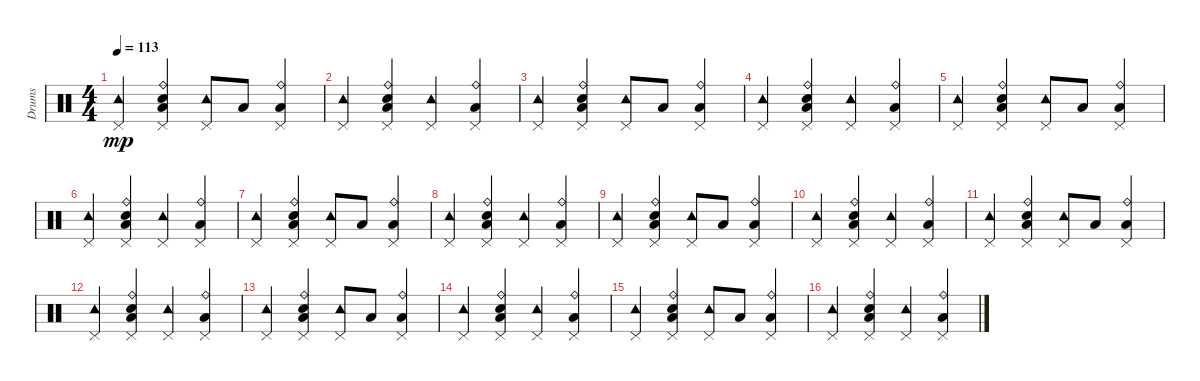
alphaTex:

\track ("Drums" "Drums") {instrument percussion}
\staff {score}
\articulation defaults
\ts (4 4)
\tempo 113
\clef neutral
\ks c
("Pedal Hi-Hat (hit)" "Tambourine (hit)").4{dy mp} ("Pedal Hi-Hat (hit)" "Snare (hit) 2" "Low Floor Tom (hit)" "Ride (bell)").4 ("Pedal Hi-Hat (hit)" "Tambourine (hit)").8 "Low Floor Tom (hit)".8 ("Pedal Hi-Hat (hit)" "Low Floor Tom (hit)" "Ride (bell)").4 |
("Pedal Hi-Hat (hit)" "Tambourine (hit)").4 ("Pedal Hi-Hat (hit)" "Snare (hit) 2" "Low Floor Tom (hit)" "Ride (bell)").4 ("Pedal Hi-Hat (hit)" "Tambourine (hit)").4 ("Pedal Hi-Hat (hit)" "Low Floor Tom (hit)" "Ride (bell)").4 |
("Pedal Hi-Hat (hit)" "Tambourine (hit)").4 ("Pedal Hi-Hat (hit)" "Snare (hit) 2" "Low Floor Tom (hit)" "Ride (bell)").4 ("Pedal Hi-Hat (hit)" "Tambourine (hit)").8 "Low Floor Tom (hit)".8 ("Pedal Hi-Hat (hit)" "Low Floor Tom (hit)" "Ride (bell)").4 |
("Pedal Hi-Hat (hit)" "Tambourine (hit)").4 ("Pedal Hi-Hat (hit)" "Snare (hit) 2" "Low Floor Tom (hit)" "Ride (bell)").4 ("Pedal Hi-Hat (hit)" "Tambourine (hit)").4 ("Pedal Hi-Hat (hit)" "Low Floor Tom (hit)" "Ride (bell)").4 |
("Pedal Hi-Hat (hit)" "Tambourine (hit)").4 ("Pedal Hi-Hat (hit)" "Snare (hit) 2" "Low Floor Tom (hit)" "Ride (bell)").4 ("Pedal Hi-Hat (hit)" "Tambourine (hit)").8 "Low Floor Tom (hit)".8 ("Pedal Hi-Hat (hit)" "Low Floor Tom (hit)" "Ride (bell)").4 |
("Pedal Hi-Hat (hit)" "Tambourine (hit)").4 ("Pedal Hi-Hat (hit)" "Snare (hit) 2" "Low Floor Tom (hit)" "Ride (bell)").4 ("Pedal Hi-Hat (hit)" "Tambourine (hit)").4 ("Pedal Hi-Hat (hit)" "Low Floor Tom (hit)" "Ride (bell)").4 |
("Pedal Hi-Hat (hit)" "Tambourine (hit)").4 ("Pedal Hi-Hat (hit)" "Snare (hit) 2" "Low Floor Tom (hit)" "Ride (bell)").4 ("Pedal Hi-Hat (hit)" "Tambourine (hit)").8 "Low Floor Tom (hit)".8 ("Pedal Hi-Hat (hit)" "Low Floor Tom (hit)" "Ride (bell)").4 |
("Pedal Hi-Hat (hit)" "Tambourine (hit)").4 ("Pedal Hi-Hat (hit)" "Snare (hit) 2" "Low Floor Tom (hit)" "Ride (bell)").4 ("Pedal Hi-Hat (hit)" "Tambourine (hit)").4 ("Pedal Hi-Hat (hit)" "Low Floor Tom (hit)" "Ride (bell)").4 |
("Pedal Hi-Hat (hit)" "Tambourine (hit)").4 ("Pedal Hi-Hat (hit)" "Snare (hit) 2" "Low Floor Tom (hit)" "Ride (bell)").4 ("Pedal Hi-Hat (hit)" "Tambourine (hit)").8 "Low Floor Tom (hit)".8 ("Pedal Hi-Hat (hit)" "Low Floor Tom (hit)" "Ride (bell)").4 |
("Pedal Hi-Hat (hit)" "Tambourine (hit)").4 ("Pedal Hi-Hat (hit)" "Snare (hit) 2" "Low Floor Tom (hit)" "Ride (bell)").4 ("Pedal Hi-Hat (hit)" "Tambourine (hit)").4 ("Pedal Hi-Hat (hit)" "Low Floor Tom (hit)" "Ride (bell)").4 |
("Pedal Hi-Hat (hit)" "Tambourine (hit)").4 ("Pedal Hi-Hat (hit)" "Snare (hit) 2" "Low Floor Tom (hit)" "Ride (bell)").4 ("Pedal Hi-Hat (hit)" "Tambourine (hit)").8 "Low Floor Tom (hit)".8 ("Pedal Hi-Hat (hit)" "Low Floor Tom (hit)" "Ride (bell)").4 |
("Pedal Hi-Hat (hit)" "Tambourine (hit)").4 ("Pedal Hi-Hat (hit)" "Snare (hit) 2" "Low Floor Tom (hit)" "Ride (bell)").4 ("Pedal Hi-Hat (hit)" "Tambourine (hit)").4 ("Pedal Hi-Hat (hit)" "Low Floor Tom (hit)" "Ride (bell)").4 |
("Pedal Hi-Hat (hit)" "Tambourine (hit)").4 ("Pedal Hi-Hat (hit)" "Snare (hit) 2" "Low Floor Tom (hit)" "Ride (bell)").4 ("Pedal Hi-Hat (hit)" "Tambourine (hit)").8 "Low Floor Tom (hit)".8 ("Pedal Hi-Hat (hit)" "Low Floor Tom (hit)" "Ride (bell)").4 |
("Pedal Hi-Hat (hit)" "Tambourine (hit)").4 ("Pedal Hi-Hat (hit)" "Snare (hit) 2" "Low Floor Tom (hit)" "Ride (bell)").4 ("Pedal Hi-Hat (hit)" "Tambourine (hit)").4 ("Pedal Hi-Hat (hit)" "Low Floor Tom (hit)" "Ride (bell)").4 |
("Pedal Hi-Hat (hit)" "Tambourine (hit)").4 ("Pedal Hi-Hat (hit)" "Snare (hit) 2" "Low Floor Tom (hit)" "Ride (bell)").4 ("Pedal Hi-Hat (hit)" "Tambourine (hit)").8 "Low Floor Tom (hit)".8 ("Pedal Hi-Hat (hit)" "Low Floor Tom (hit)" "Ride (bell)").4 |
("Pedal Hi-Hat (hit)" "Tambourine (hit)").4 ("Pedal Hi-Hat (hit)" "Snare (hit) 2" "Low Floor Tom (hit)" "Ride (bell)").4 ("Pedal Hi-Hat (hit)" "Tambourine (hit)").4 ("Pedal Hi-Hat (hit)" "Low Floor Tom (hit)" "Ride (bell)").4
